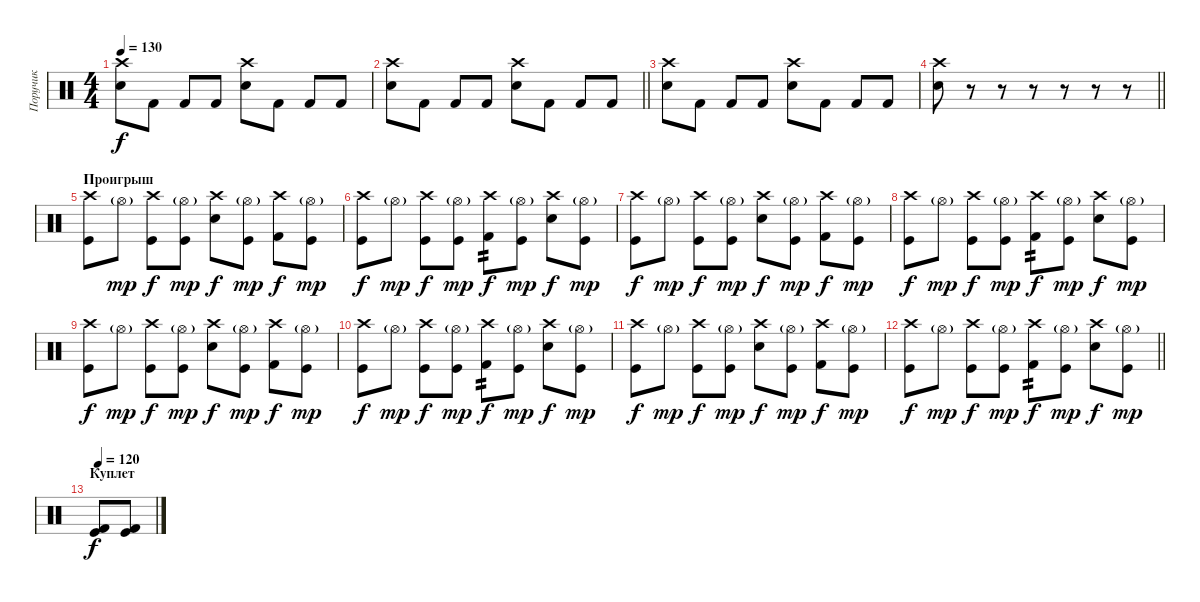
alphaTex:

\track ("Поручик" "Поручик") {instrument percussion}
\staff {score}
\articulation defaults
\ts (4 4)
\tempo 130
\clef neutral
\ks c
("Crash high (hit)" "Electric Snare (hit)").8{dy f} "Kick (hit) 2".8 "Kick (hit) 2".8 "Kick (hit) 2".8 ("Electric Snare (hit)" "Crash high (hit)").8 "Kick (hit) 2".8 "Kick (hit) 2".8 "Kick (hit) 2".8 |
\barLineRight lightlight
("Crash high (hit)" "Electric Snare (hit)").8 "Kick (hit) 2".8 "Kick (hit) 2".8 "Kick (hit) 2".8 ("Electric Snare (hit)" "Crash high (hit)").8 "Kick (hit) 2".8 "Kick (hit) 2".8 "Kick (hit) 2".8 |
("Crash high (hit)" "Electric Snare (hit)").8 "Kick (hit) 2".8 "Kick (hit) 2".8 "Kick (hit) 2".8 ("Electric Snare (hit)" "Crash high (hit)").8 "Kick (hit) 2".8 "Kick (hit) 2".8 "Kick (hit) 2".8 |
\barLineRight lightlight
("Snare (hit) 2" "Crash high (hit)").8 r.8 r.8 r.8 r.8 r.8 r.8 |
\section ("" "Проигрыш")
("Crash high (hit)" "Kick (hit)").8 "Hi-Hat (open)"{g}.8{dy mp} ("Crash high (hit)" "Kick (hit)").8{dy f} ("Hi-Hat (open)"{g} "Kick (hit)").8{dy mp} ("Electric Snare (hit)" "Crash high (hit)").8{dy f} ("Hi-Hat (open)"{g} "Kick (hit)").8{dy mp} ("Crash high (hit)" "Kick (hit) 2").8{dy f} ("Hi-Hat (open)"{g} "Kick (hit)").8{dy mp} |
("Crash high (hit)" "Kick (hit)").8{dy f} "Hi-Hat (open)"{g}.8{dy mp} ("Crash high (hit)" "Kick (hit)").8{dy f} ("Hi-Hat (open)"{g} "Kick (hit)").8{dy mp} ("Kick (hit) 2" "Crash high (hit)").8{tp 2 dy f} ("Hi-Hat (open)"{g} "Kick (hit)").8{dy mp} ("Crash high (hit)" "Electric Snare (hit)").8{dy f} ("Hi-Hat (open)"{g} "Kick (hit)").8{dy mp} |
("Crash high (hit)" "Kick (hit)").8{dy f} "Hi-Hat (open)"{g}.8{dy mp} ("Crash high (hit)" "Kick (hit)").8{dy f} ("Hi-Hat (open)"{g} "Kick (hit)").8{dy mp} ("Electric Snare (hit)" "Crash high (hit)").8{dy f} ("Hi-Hat (open)"{g} "Kick (hit)").8{dy mp} ("Crash high (hit)" "Kick (hit) 2").8{dy f} ("Hi-Hat (open)"{g} "Kick (hit)").8{dy mp} |
("Crash high (hit)" "Kick (hit)").8{dy f} "Hi-Hat (open)"{g}.8{dy mp} ("Crash high (hit)" "Kick (hit)").8{dy f} ("Hi-Hat (open)"{g} "Kick (hit)").8{dy mp} ("Kick (hit) 2" "Crash high (hit)").8{tp 2 dy f} ("Hi-Hat (open)"{g} "Kick (hit)").8{dy mp} ("Crash high (hit)" "Electric Snare (hit)").8{dy f} ("Hi-Hat (open)"{g} "Kick (hit)").8{dy mp} |
("Crash high (hit)" "Kick (hit)").8{dy f} "Hi-Hat (open)"{g}.8{dy mp} ("Crash high (hit)" "Kick (hit)").8{dy f} ("Hi-Hat (open)"{g} "Kick (hit)").8{dy mp} ("Electric Snare (hit)" "Crash high (hit)").8{dy f} ("Hi-Hat (open)"{g} "Kick (hit)").8{dy mp} ("Crash high (hit)" "Kick (hit) 2").8{dy f} ("Hi-Hat (open)"{g} "Kick (hit)").8{dy mp} |
("Crash high (hit)" "Kick (hit)").8{dy f} "Hi-Hat (open)"{g}.8{dy mp} ("Crash high (hit)" "Kick (hit)").8{dy f} ("Hi-Hat (open)"{g} "Kick (hit)").8{dy mp} ("Kick (hit) 2" "Crash high (hit)").8{tp 2 dy f} ("Hi-Hat (open)"{g} "Kick (hit)").8{dy mp} ("Crash high (hit)" "Electric Snare (hit)").8{dy f} ("Hi-Hat (open)"{g} "Kick (hit)").8{dy mp} |
("Crash high (hit)" "Kick (hit)").8{dy f} "Hi-Hat (open)"{g}.8{dy mp} ("Crash high (hit)" "Kick (hit)").8{dy f} ("Hi-Hat (open)"{g} "Kick (hit)").8{dy mp} ("Electric Snare (hit)" "Crash high (hit)").8{dy f} ("Hi-Hat (open)"{g} "Kick (hit)").8{dy mp} ("Crash high (hit)" "Kick (hit) 2").8{dy f} ("Hi-Hat (open)"{g} "Kick (hit)").8{dy mp} |
\barLineRight lightlight
("Crash high (hit)" "Kick (hit)").8{dy f} "Hi-Hat (open)"{g}.8{dy mp} ("Crash high (hit)" "Kick (hit)").8{dy f} ("Hi-Hat (open)"{g} "Kick (hit)").8{dy mp} ("Kick (hit) 2" "Crash high (hit)").8{tp 2 dy f} ("Hi-Hat (open)"{g} "Kick (hit)").8{dy mp} ("Crash high (hit)" "Electric Snare (hit)").8{dy f} ("Hi-Hat (open)"{g} "Kick (hit)").8{dy mp} |
\section ("" "Куплет")
\tempo 120
("Kick (hit)" "Kick (hit) 2").8{dy f} ("Kick (hit)" "Kick (hit) 2").8
